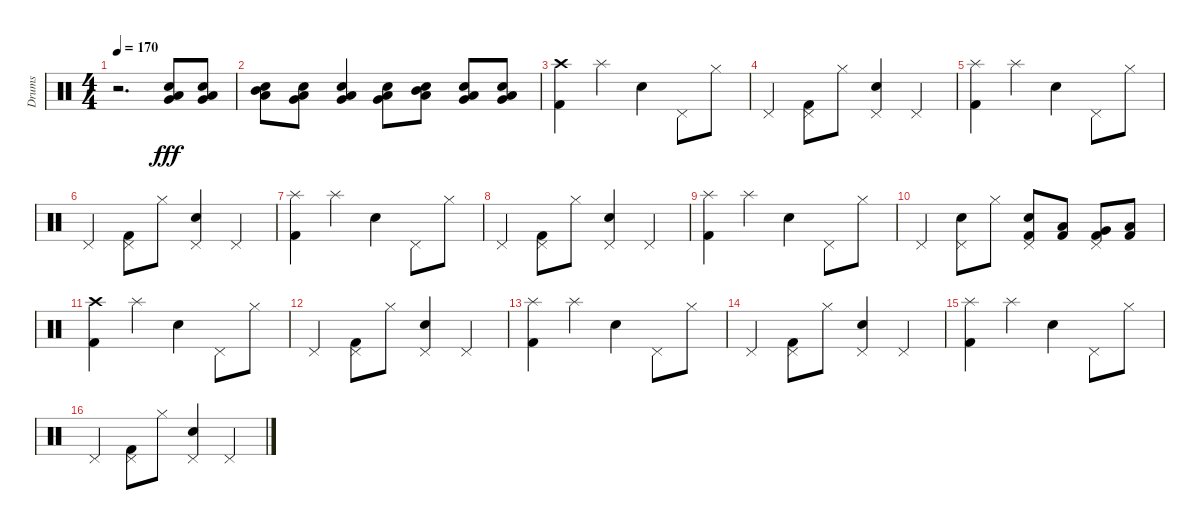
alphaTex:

\track ("Drums" "Drums") {instrument percussion}
\staff {score}
\articulation defaults
\ts (4 4)
\tempo 170
\clef neutral
\ks c
r.2{d dy fff volume 4} ("Snare (hit) 2" "Low Floor Tom (hit)" "Very Low Tom (hit)").8{volume 13} ("Snare (hit) 2" "Very Low Tom (hit)" "Low Tom (hit)").8 |
("Snare (hit) 2" "Low Tom (hit)" "Mid Tom (hit)").8 ("Snare (hit) 2" "Very Low Tom (hit)" "Low Tom (hit)").8 ("Snare (hit) 2" "Low Floor Tom (hit)" "Very Low Tom (hit)").4 ("Snare (hit) 2" "Low Tom (hit)" "Very Low Tom (hit)").8 ("Snare (hit) 2" "Mid Tom (hit)" "Low Tom (hit)").8 ("Snare (hit) 2" "Low Tom (hit)" "Very Low Tom (hit)").8 ("Snare (hit) 2" "Very Low Tom (hit)" "Low Floor Tom (hit)").8 |
("Crash high (hit)" "Kick (hit) 2").4{volume 10} "Splash (hit)".4 "Snare (hit) 2".4 "Pedal Hi-Hat (hit)".8 "Hi-Hat (closed)".8 |
"Pedal Hi-Hat (hit)".4 ("Pedal Hi-Hat (hit)" "Kick (hit) 2").8 "Hi-Hat (closed)".8 ("Pedal Hi-Hat (hit)" "Snare (hit) 2").4 "Pedal Hi-Hat (hit)".4 |
("Splash (hit)" "Kick (hit) 2").4 "Splash (hit)".4 "Snare (hit) 2".4 "Pedal Hi-Hat (hit)".8 "Hi-Hat (closed)".8 |
"Pedal Hi-Hat (hit)".4 ("Pedal Hi-Hat (hit)" "Kick (hit) 2").8 "Hi-Hat (closed)".8 ("Pedal Hi-Hat (hit)" "Snare (hit) 2").4 "Pedal Hi-Hat (hit)".4 |
("Splash (hit)" "Kick (hit) 2").4 "Splash (hit)".4 "Snare (hit) 2".4 "Pedal Hi-Hat (hit)".8 "Hi-Hat (closed)".8 |
"Pedal Hi-Hat (hit)".4 ("Pedal Hi-Hat (hit)" "Kick (hit) 2").8 "Hi-Hat (closed)".8 ("Pedal Hi-Hat (hit)" "Snare (hit) 2").4 "Pedal Hi-Hat (hit)".4 |
("Splash (hit)" "Kick (hit) 2").4 "Splash (hit)".4 "Snare (hit) 2".4 "Pedal Hi-Hat (hit)".8 "Hi-Hat (closed)".8 |
"Pedal Hi-Hat (hit)".4 ("Pedal Hi-Hat (hit)" "Snare (hit) 2").8 "Hi-Hat (closed)".8 ("Pedal Hi-Hat (hit)" "Snare (hit) 2" "Kick (hit) 2").8 ("Low Tom (hit)" "Kick (hit) 2").8 ("Pedal Hi-Hat (hit)" "Very Low Tom (hit)" "Kick (hit) 2").8 ("Low Floor Tom (hit)" "Kick (hit) 2").8 |
("Crash high (hit)" "Kick (hit) 2").4 "Splash (hit)".4 "Snare (hit) 2".4 "Pedal Hi-Hat (hit)".8 "Hi-Hat (closed)".8 |
"Pedal Hi-Hat (hit)".4 ("Pedal Hi-Hat (hit)" "Kick (hit) 2").8 "Hi-Hat (closed)".8 ("Pedal Hi-Hat (hit)" "Snare (hit) 2").4 "Pedal Hi-Hat (hit)".4 |
("Splash (hit)" "Kick (hit) 2").4 "Splash (hit)".4 "Snare (hit) 2".4 "Pedal Hi-Hat (hit)".8 "Hi-Hat (closed)".8 |
"Pedal Hi-Hat (hit)".4 ("Pedal Hi-Hat (hit)" "Kick (hit) 2").8 "Hi-Hat (closed)".8 ("Pedal Hi-Hat (hit)" "Snare (hit) 2").4 "Pedal Hi-Hat (hit)".4 |
("Splash (hit)" "Kick (hit) 2").4 "Splash (hit)".4 "Snare (hit) 2".4 "Pedal Hi-Hat (hit)".8 "Hi-Hat (closed)".8 |
"Pedal Hi-Hat (hit)".4 ("Pedal Hi-Hat (hit)" "Kick (hit) 2").8 "Hi-Hat (closed)".8 ("Pedal Hi-Hat (hit)" "Snare (hit) 2").4 "Pedal Hi-Hat (hit)".4
